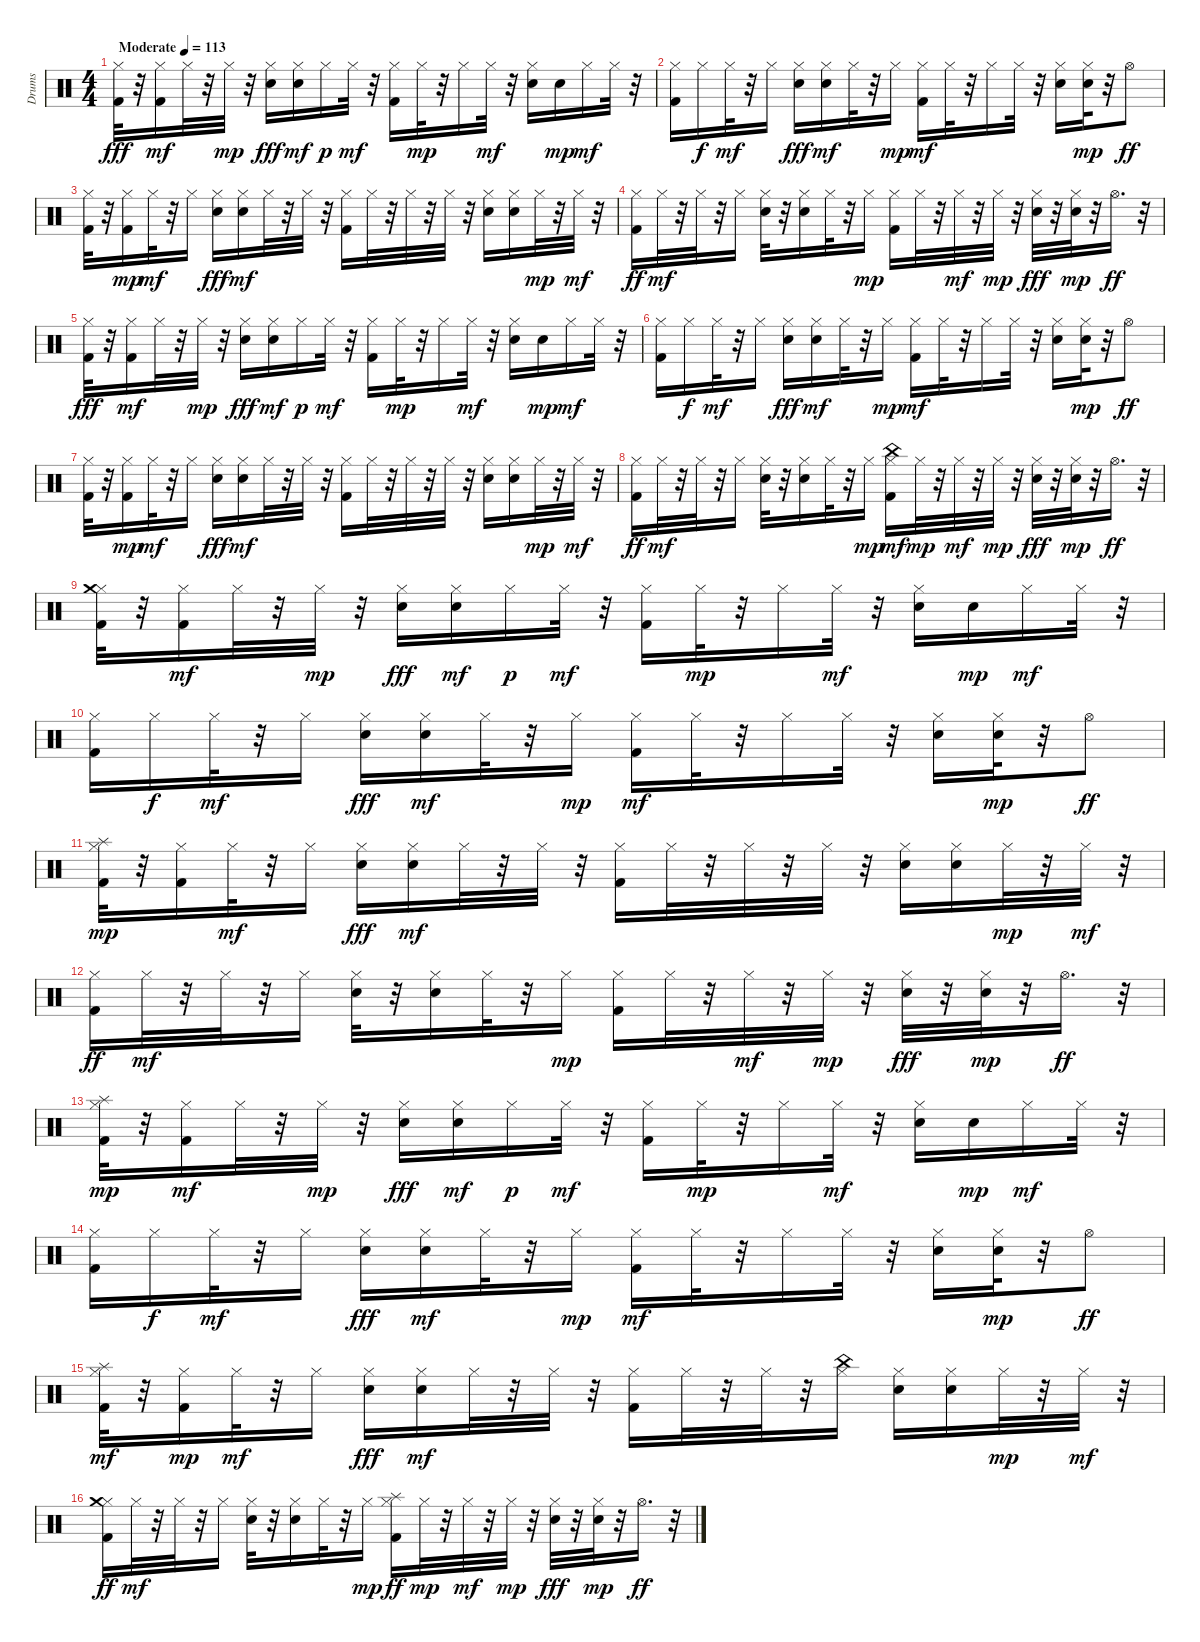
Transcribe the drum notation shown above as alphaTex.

\track ("Drums" "Drums") {instrument percussion}
\staff {score}
\articulation defaults
\ts (4 4)
\tempo (113 "Moderate")
\clef neutral
\ks c
("Kick (hit) 2" "Hi-Hat (closed)").32{dy fff} r.32 ("Kick (hit) 2" "Hi-Hat (closed)").16{dy mf} "Hi-Hat (closed)".32 r.32 "Hi-Hat (closed)".32{dy mp} r.32 ("Electric Snare (hit)" "Hi-Hat (closed)").16{dy fff} ("Electric Snare (hit)" "Hi-Hat (closed)").16{dy mf} "Hi-Hat (closed)".16{dy p} "Hi-Hat (closed)".32{dy mf} r.32 ("Kick (hit) 2" "Hi-Hat (closed)").16 "Hi-Hat (closed)".32{dy mp} r.32 "Hi-Hat (closed)".16 "Hi-Hat (closed)".32{dy mf} r.32 ("Electric Snare (hit)" "Hi-Hat (closed)").16 "Electric Snare (hit)".16{dy mp} "Hi-Hat (closed)".16{dy mf} "Hi-Hat (closed)".32 r.32 |
("Kick (hit) 2" "Hi-Hat (closed)").16 "Hi-Hat (closed)".16{dy f} "Hi-Hat (closed)".32{dy mf} r.32 "Hi-Hat (closed)".16 ("Electric Snare (hit)" "Hi-Hat (closed)").16{dy fff} ("Electric Snare (hit)" "Hi-Hat (closed)").16{dy mf} "Hi-Hat (closed)".32 r.32 "Hi-Hat (closed)".16{dy mp} ("Kick (hit) 2" "Hi-Hat (closed)").16{dy mf} "Hi-Hat (closed)".32 r.32 "Hi-Hat (closed)".16 "Hi-Hat (closed)".32 r.32 ("Electric Snare (hit)" "Hi-Hat (closed)").16 ("Electric Snare (hit)" "Hi-Hat (closed)").32{dy mp} r.32 "Hi-Hat (open)".8{dy ff} |
("Kick (hit) 2" "Hi-Hat (closed)").32 r.32 ("Kick (hit) 2" "Hi-Hat (closed)").16{dy mp} "Hi-Hat (closed)".32{dy mf} r.32 "Hi-Hat (closed)".16 ("Electric Snare (hit)" "Hi-Hat (closed)").16{dy fff} ("Electric Snare (hit)" "Hi-Hat (closed)").16{dy mf} "Hi-Hat (closed)".32 r.32 "Hi-Hat (closed)".32 r.32 ("Kick (hit) 2" "Hi-Hat (closed)").16 "Hi-Hat (closed)".32 r.32 "Hi-Hat (closed)".32 r.32 "Hi-Hat (closed)".32 r.32 ("Electric Snare (hit)" "Hi-Hat (closed)").16 ("Electric Snare (hit)" "Hi-Hat (closed)").16 "Hi-Hat (closed)".32{dy mp} r.32 "Hi-Hat (closed)".32{dy mf} r.32 |
("Kick (hit) 2" "Hi-Hat (closed)").16{dy ff} "Hi-Hat (closed)".32{dy mf} r.32 "Hi-Hat (closed)".32 r.32 "Hi-Hat (closed)".16 ("Electric Snare (hit)" "Hi-Hat (closed)").32 r.32 ("Electric Snare (hit)" "Hi-Hat (closed)").16 "Hi-Hat (closed)".32 r.32 "Hi-Hat (closed)".16{dy mp} ("Kick (hit) 2" "Hi-Hat (closed)").16 "Hi-Hat (closed)".32 r.32 "Hi-Hat (closed)".32{dy mf} r.32 "Hi-Hat (closed)".32{dy mp} r.32 ("Electric Snare (hit)" "Hi-Hat (closed)").32{dy fff} r.32 ("Electric Snare (hit)" "Hi-Hat (closed)").32{dy mp} r.32 "Hi-Hat (open)".16{d dy ff} r.32 |
("Kick (hit) 2" "Hi-Hat (closed)").32{dy fff} r.32 ("Kick (hit) 2" "Hi-Hat (closed)").16{dy mf} "Hi-Hat (closed)".32 r.32 "Hi-Hat (closed)".32{dy mp} r.32 ("Electric Snare (hit)" "Hi-Hat (closed)").16{dy fff} ("Electric Snare (hit)" "Hi-Hat (closed)").16{dy mf} "Hi-Hat (closed)".16{dy p} "Hi-Hat (closed)".32{dy mf} r.32 ("Kick (hit) 2" "Hi-Hat (closed)").16 "Hi-Hat (closed)".32{dy mp} r.32 "Hi-Hat (closed)".16 "Hi-Hat (closed)".32{dy mf} r.32 ("Electric Snare (hit)" "Hi-Hat (closed)").16 "Electric Snare (hit)".16{dy mp} "Hi-Hat (closed)".16{dy mf} "Hi-Hat (closed)".32 r.32 |
("Kick (hit) 2" "Hi-Hat (closed)").16 "Hi-Hat (closed)".16{dy f} "Hi-Hat (closed)".32{dy mf} r.32 "Hi-Hat (closed)".16 ("Electric Snare (hit)" "Hi-Hat (closed)").16{dy fff} ("Electric Snare (hit)" "Hi-Hat (closed)").16{dy mf} "Hi-Hat (closed)".32 r.32 "Hi-Hat (closed)".16{dy mp} ("Kick (hit) 2" "Hi-Hat (closed)").16{dy mf} "Hi-Hat (closed)".32 r.32 "Hi-Hat (closed)".16 "Hi-Hat (closed)".32 r.32 ("Electric Snare (hit)" "Hi-Hat (closed)").16 ("Electric Snare (hit)" "Hi-Hat (closed)").32{dy mp} r.32 "Hi-Hat (open)".8{dy ff} |
("Kick (hit) 2" "Hi-Hat (closed)").32 r.32 ("Kick (hit) 2" "Hi-Hat (closed)").16{dy mp} "Hi-Hat (closed)".32{dy mf} r.32 "Hi-Hat (closed)".16 ("Electric Snare (hit)" "Hi-Hat (closed)").16{dy fff} ("Electric Snare (hit)" "Hi-Hat (closed)").16{dy mf} "Hi-Hat (closed)".32 r.32 "Hi-Hat (closed)".32 r.32 ("Kick (hit) 2" "Hi-Hat (closed)").16 "Hi-Hat (closed)".32 r.32 "Hi-Hat (closed)".32 r.32 "Hi-Hat (closed)".32 r.32 ("Electric Snare (hit)" "Hi-Hat (closed)").16 ("Electric Snare (hit)" "Hi-Hat (closed)").16 "Hi-Hat (closed)".32{dy mp} r.32 "Hi-Hat (closed)".32{dy mf} r.32 |
("Kick (hit) 2" "Hi-Hat (closed)").16{dy ff} "Hi-Hat (closed)".32{dy mf} r.32 "Hi-Hat (closed)".32 r.32 "Hi-Hat (closed)".16 ("Electric Snare (hit)" "Hi-Hat (closed)").32 r.32 ("Electric Snare (hit)" "Hi-Hat (closed)").16 "Hi-Hat (closed)".32 r.32 "Hi-Hat (closed)".16{dy mp} ("Kick (hit) 2" "Hi-Hat (closed)" "China (hit)").16{dy mf} "Hi-Hat (closed)".32{dy mp} r.32 "Hi-Hat (closed)".32{dy mf} r.32 "Hi-Hat (closed)".32{dy mp} r.32 ("Electric Snare (hit)" "Hi-Hat (closed)").32{dy fff} r.32 ("Electric Snare (hit)" "Hi-Hat (closed)").32{dy mp} r.32 "Hi-Hat (open)".16{d dy ff} r.32 |
("Kick (hit) 2" "Hi-Hat (closed)" "Crash medium (hit)").32 r.32 ("Kick (hit) 2" "Hi-Hat (closed)").16{dy mf} "Hi-Hat (closed)".32 r.32 "Hi-Hat (closed)".32{dy mp} r.32 ("Electric Snare (hit)" "Hi-Hat (closed)").16{dy fff} ("Electric Snare (hit)" "Hi-Hat (closed)").16{dy mf} "Hi-Hat (closed)".16{dy p} "Hi-Hat (closed)".32{dy mf} r.32 ("Kick (hit) 2" "Hi-Hat (closed)").16 "Hi-Hat (closed)".32{dy mp} r.32 "Hi-Hat (closed)".16 "Hi-Hat (closed)".32{dy mf} r.32 ("Electric Snare (hit)" "Hi-Hat (closed)").16 "Electric Snare (hit)".16{dy mp} "Hi-Hat (closed)".16{dy mf} "Hi-Hat (closed)".32 r.32 |
("Kick (hit) 2" "Hi-Hat (closed)").16 "Hi-Hat (closed)".16{dy f} "Hi-Hat (closed)".32{dy mf} r.32 "Hi-Hat (closed)".16 ("Electric Snare (hit)" "Hi-Hat (closed)").16{dy fff} ("Electric Snare (hit)" "Hi-Hat (closed)").16{dy mf} "Hi-Hat (closed)".32 r.32 "Hi-Hat (closed)".16{dy mp} ("Kick (hit) 2" "Hi-Hat (closed)").16{dy mf} "Hi-Hat (closed)".32 r.32 "Hi-Hat (closed)".16 "Hi-Hat (closed)".32 r.32 ("Electric Snare (hit)" "Hi-Hat (closed)").16 ("Electric Snare (hit)" "Hi-Hat (closed)").32{dy mp} r.32 "Hi-Hat (open)".8{dy ff} |
("Kick (hit) 2" "Hi-Hat (closed)" "Splash (hit)").32{dy mp} r.32 ("Kick (hit) 2" "Hi-Hat (closed)").16 "Hi-Hat (closed)".32{dy mf} r.32 "Hi-Hat (closed)".16 ("Electric Snare (hit)" "Hi-Hat (closed)").16{dy fff} ("Electric Snare (hit)" "Hi-Hat (closed)").16{dy mf} "Hi-Hat (closed)".32 r.32 "Hi-Hat (closed)".32 r.32 ("Kick (hit) 2" "Hi-Hat (closed)").16 "Hi-Hat (closed)".32 r.32 "Hi-Hat (closed)".32 r.32 "Hi-Hat (closed)".32 r.32 ("Electric Snare (hit)" "Hi-Hat (closed)").16 ("Electric Snare (hit)" "Hi-Hat (closed)").16 "Hi-Hat (closed)".32{dy mp} r.32 "Hi-Hat (closed)".32{dy mf} r.32 |
("Kick (hit) 2" "Hi-Hat (closed)").16{dy ff} "Hi-Hat (closed)".32{dy mf} r.32 "Hi-Hat (closed)".32 r.32 "Hi-Hat (closed)".16 ("Electric Snare (hit)" "Hi-Hat (closed)").32 r.32 ("Electric Snare (hit)" "Hi-Hat (closed)").16 "Hi-Hat (closed)".32 r.32 "Hi-Hat (closed)".16{dy mp} ("Kick (hit) 2" "Hi-Hat (closed)").16 "Hi-Hat (closed)".32 r.32 "Hi-Hat (closed)".32{dy mf} r.32 "Hi-Hat (closed)".32{dy mp} r.32 ("Electric Snare (hit)" "Hi-Hat (closed)").32{dy fff} r.32 ("Electric Snare (hit)" "Hi-Hat (closed)").32{dy mp} r.32 "Hi-Hat (open)".16{d dy ff} r.32 |
("Kick (hit) 2" "Hi-Hat (closed)" "Splash (hit)").32{dy mp} r.32 ("Kick (hit) 2" "Hi-Hat (closed)").16{dy mf} "Hi-Hat (closed)".32 r.32 "Hi-Hat (closed)".32{dy mp} r.32 ("Electric Snare (hit)" "Hi-Hat (closed)").16{dy fff} ("Electric Snare (hit)" "Hi-Hat (closed)").16{dy mf} "Hi-Hat (closed)".16{dy p} "Hi-Hat (closed)".32{dy mf} r.32 ("Kick (hit) 2" "Hi-Hat (closed)").16 "Hi-Hat (closed)".32{dy mp} r.32 "Hi-Hat (closed)".16 "Hi-Hat (closed)".32{dy mf} r.32 ("Electric Snare (hit)" "Hi-Hat (closed)").16 "Electric Snare (hit)".16{dy mp} "Hi-Hat (closed)".16{dy mf} "Hi-Hat (closed)".32 r.32 |
("Kick (hit) 2" "Hi-Hat (closed)").16 "Hi-Hat (closed)".16{dy f} "Hi-Hat (closed)".32{dy mf} r.32 "Hi-Hat (closed)".16 ("Electric Snare (hit)" "Hi-Hat (closed)").16{dy fff} ("Electric Snare (hit)" "Hi-Hat (closed)").16{dy mf} "Hi-Hat (closed)".32 r.32 "Hi-Hat (closed)".16{dy mp} ("Kick (hit) 2" "Hi-Hat (closed)").16{dy mf} "Hi-Hat (closed)".32 r.32 "Hi-Hat (closed)".16 "Hi-Hat (closed)".32 r.32 ("Electric Snare (hit)" "Hi-Hat (closed)").16 ("Electric Snare (hit)" "Hi-Hat (closed)").32{dy mp} r.32 "Hi-Hat (open)".8{dy ff} |
("Kick (hit) 2" "Hi-Hat (closed)" "Splash (hit)").32{dy mf} r.32 ("Kick (hit) 2" "Hi-Hat (closed)").16{dy mp} "Hi-Hat (closed)".32{dy mf} r.32 "Hi-Hat (closed)".16 ("Electric Snare (hit)" "Hi-Hat (closed)").16{dy fff} ("Electric Snare (hit)" "Hi-Hat (closed)").16{dy mf} "Hi-Hat (closed)".32 r.32 "Hi-Hat (closed)".32 r.32 ("Kick (hit) 2" "Hi-Hat (closed)").16 "Hi-Hat (closed)".32 r.32 "Hi-Hat (closed)".32 r.32 ("Hi-Hat (closed)" "China (hit)").16 ("Electric Snare (hit)" "Hi-Hat (closed)").16 ("Electric Snare (hit)" "Hi-Hat (closed)").16 "Hi-Hat (closed)".32{dy mp} r.32 "Hi-Hat (closed)".32{dy mf} r.32 |
("Kick (hit) 2" "Hi-Hat (closed)" "Crash medium (hit)").16{dy ff} "Hi-Hat (closed)".32{dy mf} r.32 "Hi-Hat (closed)".32 r.32 "Hi-Hat (closed)".16 ("Electric Snare (hit)" "Hi-Hat (closed)").32 r.32 ("Electric Snare (hit)" "Hi-Hat (closed)").16 "Hi-Hat (closed)".32 r.32 "Hi-Hat (closed)".16{dy mp} ("Kick (hit) 2" "Hi-Hat (closed)" "Splash (hit)").16{dy ff} "Hi-Hat (closed)".32{dy mp} r.32 "Hi-Hat (closed)".32{dy mf} r.32 "Hi-Hat (closed)".32{dy mp} r.32 ("Electric Snare (hit)" "Hi-Hat (closed)").32{dy fff} r.32 ("Electric Snare (hit)" "Hi-Hat (closed)").32{dy mp} r.32 "Hi-Hat (open)".16{d dy ff} r.32
